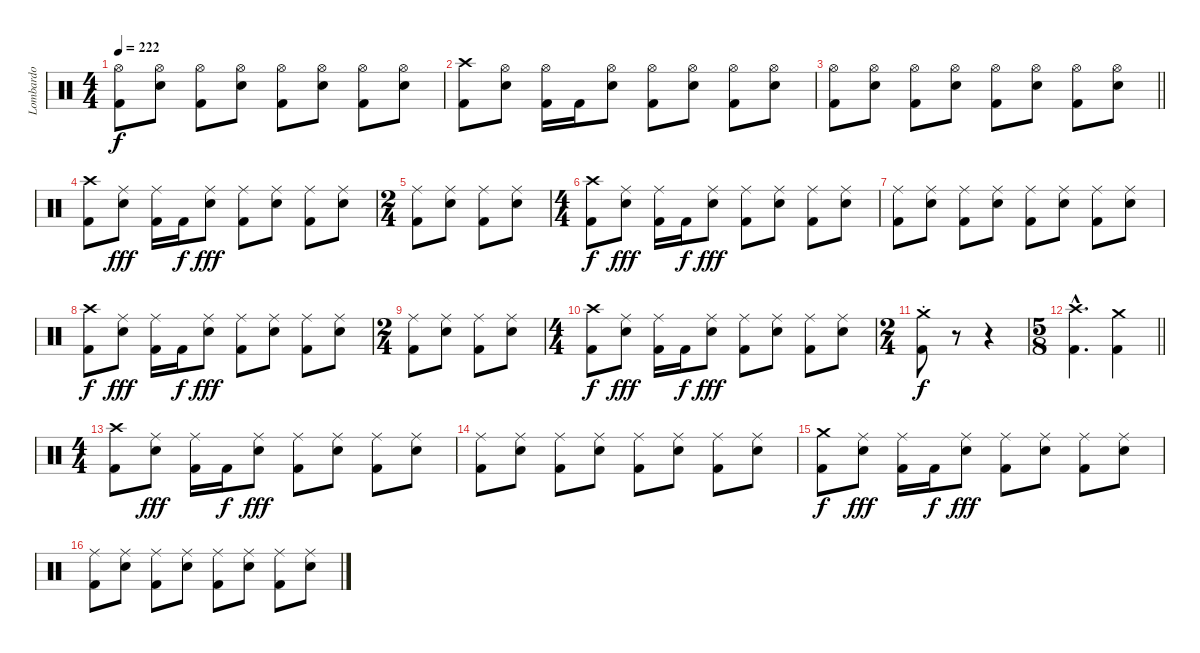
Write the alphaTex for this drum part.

\track ("Lombardo" "Lombardo") {instrument percussion}
\staff {score}
\articulation defaults
\ts (4 4)
\tempo 222
\clef neutral
\ks c
("Hi-Hat (open)" "Kick (hit) 2").8{dy f} ("Hi-Hat (open)" "Snare (hit) 2").8 ("Hi-Hat (open)" "Kick (hit) 2").8 ("Hi-Hat (open)" "Snare (hit) 2").8 ("Hi-Hat (open)" "Kick (hit) 2").8 ("Hi-Hat (open)" "Snare (hit) 2").8 ("Hi-Hat (open)" "Kick (hit) 2").8 ("Hi-Hat (open)" "Snare (hit) 2").8 |
("Crash high (hit)" "Kick (hit) 2").8 ("Hi-Hat (open)" "Snare (hit) 2").8 ("Hi-Hat (open)" "Kick (hit) 2").16 "Kick (hit) 2".16 ("Hi-Hat (open)" "Snare (hit) 2").8 ("Hi-Hat (open)" "Kick (hit) 2").8 ("Hi-Hat (open)" "Snare (hit) 2").8 ("Hi-Hat (open)" "Kick (hit) 2").8 ("Hi-Hat (open)" "Snare (hit) 2").8 |
\barLineRight lightlight
("Hi-Hat (open)" "Kick (hit) 2").8 ("Hi-Hat (open)" "Snare (hit) 2").8 ("Hi-Hat (open)" "Kick (hit) 2").8 ("Hi-Hat (open)" "Snare (hit) 2").8 ("Hi-Hat (open)" "Kick (hit) 2").8 ("Hi-Hat (open)" "Snare (hit) 2").8 ("Hi-Hat (open)" "Kick (hit) 2").8 ("Hi-Hat (open)" "Snare (hit) 2").8 |
("Crash high (hit)" "Kick (hit) 2").8 ("Ride (middle)" "Snare (hit) 2").8{dy fff} ("Ride (middle)" "Kick (hit) 2").16 "Kick (hit) 2".16{dy f} ("Ride (middle)" "Snare (hit) 2").8{dy fff} ("Ride (middle)" "Kick (hit) 2").8 ("Ride (middle)" "Snare (hit) 2").8 ("Ride (middle)" "Kick (hit) 2").8 ("Ride (middle)" "Snare (hit) 2").8 |
\ts (2 4)
("Ride (middle)" "Kick (hit) 2").8 ("Ride (middle)" "Snare (hit) 2").8 ("Ride (middle)" "Kick (hit) 2").8 ("Ride (middle)" "Snare (hit) 2").8 |
\ts (4 4)
("Crash high (hit)" "Kick (hit) 2").8{dy f} ("Ride (middle)" "Snare (hit) 2").8{dy fff} ("Ride (middle)" "Kick (hit) 2").16 "Kick (hit) 2".16{dy f} ("Ride (middle)" "Snare (hit) 2").8{dy fff} ("Ride (middle)" "Kick (hit) 2").8 ("Ride (middle)" "Snare (hit) 2").8 ("Ride (middle)" "Kick (hit) 2").8 ("Ride (middle)" "Snare (hit) 2").8 |
("Ride (middle)" "Kick (hit) 2").8 ("Ride (middle)" "Snare (hit) 2").8 ("Ride (middle)" "Kick (hit) 2").8 ("Ride (middle)" "Snare (hit) 2").8 ("Ride (middle)" "Kick (hit) 2").8 ("Ride (middle)" "Snare (hit) 2").8 ("Ride (middle)" "Kick (hit) 2").8 ("Ride (middle)" "Snare (hit) 2").8 |
("Crash high (hit)" "Kick (hit) 2").8{dy f} ("Ride (middle)" "Snare (hit) 2").8{dy fff} ("Ride (middle)" "Kick (hit) 2").16 "Kick (hit) 2".16{dy f} ("Ride (middle)" "Snare (hit) 2").8{dy fff} ("Ride (middle)" "Kick (hit) 2").8 ("Ride (middle)" "Snare (hit) 2").8 ("Ride (middle)" "Kick (hit) 2").8 ("Ride (middle)" "Snare (hit) 2").8 |
\ts (2 4)
("Ride (middle)" "Kick (hit) 2").8 ("Ride (middle)" "Snare (hit) 2").8 ("Ride (middle)" "Kick (hit) 2").8 ("Ride (middle)" "Snare (hit) 2").8 |
\ts (4 4)
("Crash high (hit)" "Kick (hit) 2").8{dy f} ("Ride (middle)" "Snare (hit) 2").8{dy fff} ("Ride (middle)" "Kick (hit) 2").16 "Kick (hit) 2".16{dy f} ("Ride (middle)" "Snare (hit) 2").8{dy fff} ("Ride (middle)" "Kick (hit) 2").8 ("Ride (middle)" "Snare (hit) 2").8 ("Ride (middle)" "Kick (hit) 2").8 ("Ride (middle)" "Snare (hit) 2").8 |
\ts (2 4)
("Crash medium (hit)"{st} "Kick (hit) 2").8{dy f} r.8 r.4 |
\ts (5 8)
\barLineRight lightlight
("Crash high (hit)"{hac} "Kick (hit) 2"{hac}).4{d} ("Crash medium (hit)" "Kick (hit) 2").4 |
\ts (4 4)
("Crash high (hit)" "Kick (hit) 2").8 ("Ride (middle)" "Snare (hit) 2").8{dy fff} ("Ride (middle)" "Kick (hit) 2").16 "Kick (hit) 2".16{dy f} ("Ride (middle)" "Snare (hit) 2").8{dy fff} ("Ride (middle)" "Kick (hit) 2").8 ("Ride (middle)" "Snare (hit) 2").8 ("Ride (middle)" "Kick (hit) 2").8 ("Ride (middle)" "Snare (hit) 2").8 |
("Ride (middle)" "Kick (hit) 2").8 ("Ride (middle)" "Snare (hit) 2").8 ("Ride (middle)" "Kick (hit) 2").8 ("Ride (middle)" "Snare (hit) 2").8 ("Ride (middle)" "Kick (hit) 2").8 ("Ride (middle)" "Snare (hit) 2").8 ("Ride (middle)" "Kick (hit) 2").8 ("Ride (middle)" "Snare (hit) 2").8 |
("Crash medium (hit)" "Kick (hit) 2").8{dy f} ("Ride (middle)" "Snare (hit) 2").8{dy fff} ("Ride (middle)" "Kick (hit) 2").16 "Kick (hit) 2".16{dy f} ("Ride (middle)" "Snare (hit) 2").8{dy fff} ("Ride (middle)" "Kick (hit) 2").8 ("Ride (middle)" "Snare (hit) 2").8 ("Ride (middle)" "Kick (hit) 2").8 ("Ride (middle)" "Snare (hit) 2").8 |
("Ride (middle)" "Kick (hit) 2").8 ("Ride (middle)" "Snare (hit) 2").8 ("Ride (middle)" "Kick (hit) 2").8 ("Ride (middle)" "Snare (hit) 2").8 ("Ride (middle)" "Kick (hit) 2").8 ("Ride (middle)" "Snare (hit) 2").8 ("Ride (middle)" "Kick (hit) 2").8 ("Ride (middle)" "Snare (hit) 2").8
